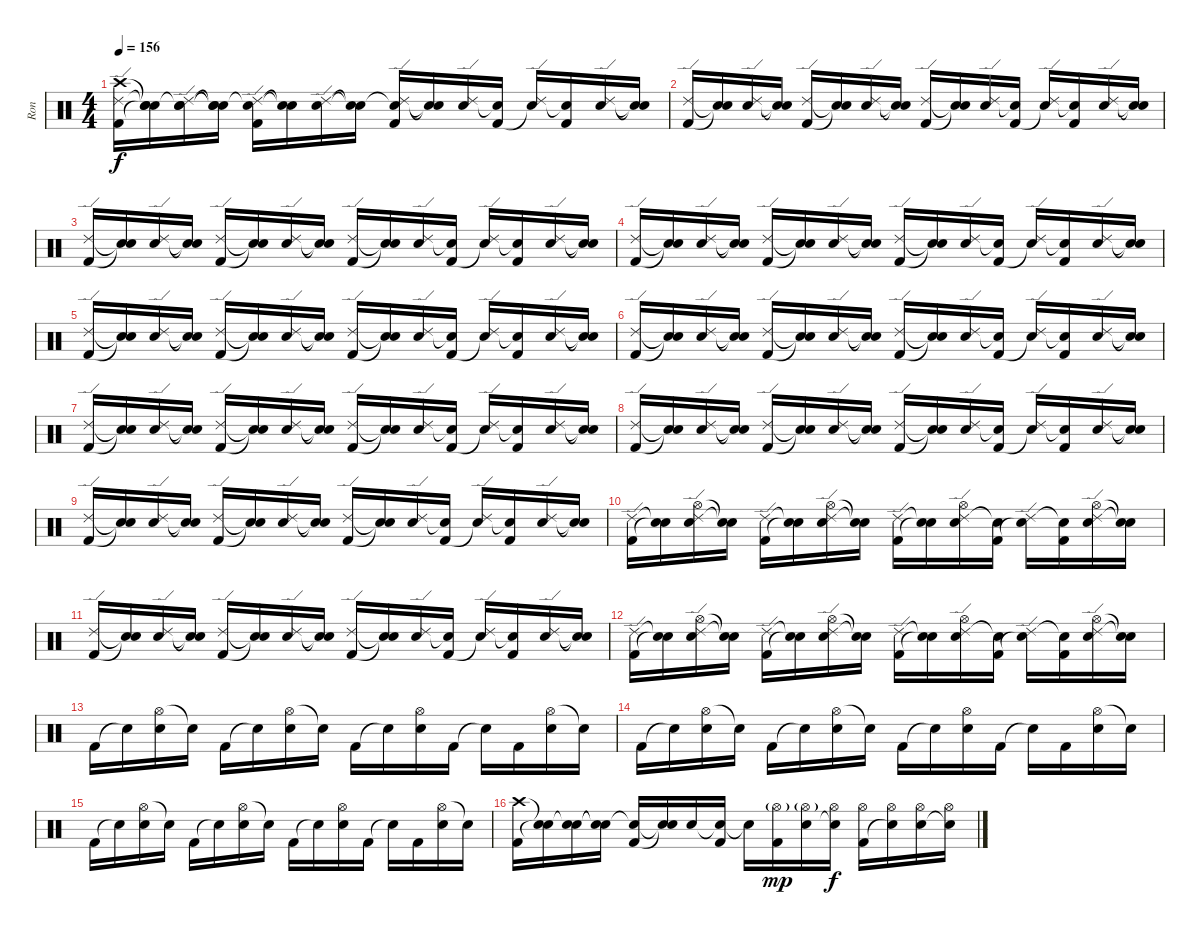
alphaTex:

\track ("Ron" "Ron") {instrument percussion}
\staff {score}
\articulation defaults
\ts (4 4)
\tempo 156
\clef neutral
\ks c
("Crash high (hit)" "Ride (edge) 2" "Kick (hit) 2").16{dy f} ("Snare (hit)"{t} "Snare (hit)"{t} "Snare (hit)"{t}).16 ("Snare (hit)"{t} "Ride (edge) 2" "Electric Snare (hit)").16 ("Snare (hit)"{t} "Snare (hit)"{t} "Snare (hit)"{t}).16 ("Snare (hit)"{t} "Ride (edge) 2" "Kick (hit) 2").16 ("Snare (hit)"{t} "Snare (hit)"{t}).16 ("Ride (edge) 2" "Electric Snare (hit)").16 ("Snare (hit)"{t} "Snare (hit)"{t}).16 ("Snare (hit)"{t} "Ride (edge) 2" "Kick (hit) 2").16 ("Snare (hit)"{t} "Snare (hit)"{t}).16 ("Ride (edge) 2" "Electric Snare (hit)").16 ("Snare (hit)"{t} "Kick (hit) 2").16 ("Ride (edge) 2" "Snare (hit)"{t}).16 ("Snare (hit)"{t} "Kick (hit) 2").16 ("Ride (edge) 2" "Electric Snare (hit)").16 ("Snare (hit)"{t} "Snare (hit)"{t}).16 |
("Ride (edge) 2" "Kick (hit) 2").16 ("Snare (hit)"{t} "Snare (hit)"{t}).16 ("Ride (edge) 2" "Electric Snare (hit)").16 ("Snare (hit)"{t} "Snare (hit)"{t}).16 ("Ride (edge) 2" "Kick (hit) 2").16 ("Snare (hit)"{t} "Snare (hit)"{t}).16 ("Ride (edge) 2" "Electric Snare (hit)").16 ("Snare (hit)"{t} "Snare (hit)"{t}).16 ("Ride (edge) 2" "Kick (hit) 2").16 ("Snare (hit)"{t} "Snare (hit)"{t}).16 ("Ride (edge) 2" "Electric Snare (hit)").16 ("Snare (hit)"{t} "Kick (hit) 2").16 ("Ride (edge) 2" "Snare (hit)"{t}).16 ("Snare (hit)"{t} "Kick (hit) 2").16 ("Ride (edge) 2" "Electric Snare (hit)").16 ("Snare (hit)"{t} "Snare (hit)"{t}).16 |
("Ride (edge) 2" "Kick (hit) 2").16 ("Snare (hit)"{t} "Snare (hit)"{t}).16 ("Ride (edge) 2" "Electric Snare (hit)").16 ("Snare (hit)"{t} "Snare (hit)"{t}).16 ("Ride (edge) 2" "Kick (hit) 2").16 ("Snare (hit)"{t} "Snare (hit)"{t}).16 ("Ride (edge) 2" "Electric Snare (hit)").16 ("Snare (hit)"{t} "Snare (hit)"{t}).16 ("Ride (edge) 2" "Kick (hit) 2").16 ("Snare (hit)"{t} "Snare (hit)"{t}).16 ("Ride (edge) 2" "Electric Snare (hit)").16 ("Snare (hit)"{t} "Kick (hit) 2").16 ("Ride (edge) 2" "Snare (hit)"{t}).16 ("Snare (hit)"{t} "Kick (hit) 2").16 ("Ride (edge) 2" "Electric Snare (hit)").16 ("Snare (hit)"{t} "Snare (hit)"{t}).16 |
("Ride (edge) 2" "Kick (hit) 2").16 ("Snare (hit)"{t} "Snare (hit)"{t}).16 ("Ride (edge) 2" "Electric Snare (hit)").16 ("Snare (hit)"{t} "Snare (hit)"{t}).16 ("Ride (edge) 2" "Kick (hit) 2").16 ("Snare (hit)"{t} "Snare (hit)"{t}).16 ("Ride (edge) 2" "Electric Snare (hit)").16 ("Snare (hit)"{t} "Snare (hit)"{t}).16 ("Ride (edge) 2" "Kick (hit) 2").16 ("Snare (hit)"{t} "Snare (hit)"{t}).16 ("Ride (edge) 2" "Electric Snare (hit)").16 ("Snare (hit)"{t} "Kick (hit) 2").16 ("Ride (edge) 2" "Snare (hit)"{t}).16 ("Snare (hit)"{t} "Kick (hit) 2").16 ("Ride (edge) 2" "Electric Snare (hit)").16 ("Snare (hit)"{t} "Snare (hit)"{t}).16 |
("Ride (edge) 2" "Kick (hit) 2").16 ("Snare (hit)"{t} "Snare (hit)"{t}).16 ("Ride (edge) 2" "Electric Snare (hit)").16 ("Snare (hit)"{t} "Snare (hit)"{t}).16 ("Ride (edge) 2" "Kick (hit) 2").16 ("Snare (hit)"{t} "Snare (hit)"{t}).16 ("Ride (edge) 2" "Electric Snare (hit)").16 ("Snare (hit)"{t} "Snare (hit)"{t}).16 ("Ride (edge) 2" "Kick (hit) 2").16 ("Snare (hit)"{t} "Snare (hit)"{t}).16 ("Ride (edge) 2" "Electric Snare (hit)").16 ("Snare (hit)"{t} "Kick (hit) 2").16 ("Ride (edge) 2" "Snare (hit)"{t}).16 ("Snare (hit)"{t} "Kick (hit) 2").16 ("Ride (edge) 2" "Electric Snare (hit)").16 ("Snare (hit)"{t} "Snare (hit)"{t}).16 |
("Ride (edge) 2" "Kick (hit) 2").16 ("Snare (hit)"{t} "Snare (hit)"{t}).16 ("Ride (edge) 2" "Electric Snare (hit)").16 ("Snare (hit)"{t} "Snare (hit)"{t}).16 ("Ride (edge) 2" "Kick (hit) 2").16 ("Snare (hit)"{t} "Snare (hit)"{t}).16 ("Ride (edge) 2" "Electric Snare (hit)").16 ("Snare (hit)"{t} "Snare (hit)"{t}).16 ("Ride (edge) 2" "Kick (hit) 2").16 ("Snare (hit)"{t} "Snare (hit)"{t}).16 ("Ride (edge) 2" "Electric Snare (hit)").16 ("Snare (hit)"{t} "Kick (hit) 2").16 ("Ride (edge) 2" "Snare (hit)"{t}).16 ("Snare (hit)"{t} "Kick (hit) 2").16 ("Ride (edge) 2" "Electric Snare (hit)").16 ("Snare (hit)"{t} "Snare (hit)"{t}).16 |
("Ride (edge) 2" "Kick (hit) 2").16 ("Snare (hit)"{t} "Snare (hit)"{t}).16 ("Ride (edge) 2" "Electric Snare (hit)").16 ("Snare (hit)"{t} "Snare (hit)"{t}).16 ("Ride (edge) 2" "Kick (hit) 2").16 ("Snare (hit)"{t} "Snare (hit)"{t}).16 ("Ride (edge) 2" "Electric Snare (hit)").16 ("Snare (hit)"{t} "Snare (hit)"{t}).16 ("Ride (edge) 2" "Kick (hit) 2").16 ("Snare (hit)"{t} "Snare (hit)"{t}).16 ("Ride (edge) 2" "Electric Snare (hit)").16 ("Snare (hit)"{t} "Kick (hit) 2").16 ("Ride (edge) 2" "Snare (hit)"{t}).16 ("Snare (hit)"{t} "Kick (hit) 2").16 ("Ride (edge) 2" "Electric Snare (hit)").16 ("Snare (hit)"{t} "Snare (hit)"{t}).16 |
("Ride (edge) 2" "Kick (hit) 2").16 ("Snare (hit)"{t} "Snare (hit)"{t}).16 ("Ride (edge) 2" "Electric Snare (hit)").16 ("Snare (hit)"{t} "Snare (hit)"{t}).16 ("Ride (edge) 2" "Kick (hit) 2").16 ("Snare (hit)"{t} "Snare (hit)"{t}).16 ("Ride (edge) 2" "Electric Snare (hit)").16 ("Snare (hit)"{t} "Snare (hit)"{t}).16 ("Ride (edge) 2" "Kick (hit) 2").16 ("Snare (hit)"{t} "Snare (hit)"{t}).16 ("Ride (edge) 2" "Electric Snare (hit)").16 ("Snare (hit)"{t} "Kick (hit) 2").16 ("Ride (edge) 2" "Snare (hit)"{t}).16 ("Snare (hit)"{t} "Kick (hit) 2").16 ("Ride (edge) 2" "Electric Snare (hit)").16 ("Snare (hit)"{t} "Snare (hit)"{t}).16 |
("Ride (edge) 2" "Kick (hit) 2").16 ("Snare (hit)"{t} "Snare (hit)"{t}).16 ("Ride (edge) 2" "Electric Snare (hit)").16 ("Snare (hit)"{t} "Snare (hit)"{t}).16 ("Ride (edge) 2" "Kick (hit) 2").16 ("Snare (hit)"{t} "Snare (hit)"{t}).16 ("Ride (edge) 2" "Electric Snare (hit)").16 ("Snare (hit)"{t} "Snare (hit)"{t}).16 ("Ride (edge) 2" "Kick (hit) 2").16 ("Snare (hit)"{t} "Snare (hit)"{t}).16 ("Ride (edge) 2" "Electric Snare (hit)").16 ("Snare (hit)"{t} "Kick (hit) 2").16 ("Ride (edge) 2" "Snare (hit)"{t}).16 ("Snare (hit)"{t} "Kick (hit) 2").16 ("Ride (edge) 2" "Electric Snare (hit)").16 ("Snare (hit)"{t} "Snare (hit)"{t}).16 |
("Ride (edge) 2" "Kick (hit) 2").16 ("Snare (hit)"{t} "Snare (hit)"{t}).16 ("Ride (edge) 2" "Hi-Hat (open)" "Electric Snare (hit)").16 ("Snare (hit)"{t} "Snare (hit)"{t}).16 ("Ride (edge) 2" "Kick (hit) 2").16 ("Snare (hit)"{t} "Snare (hit)"{t}).16 ("Ride (edge) 2" "Hi-Hat (open)" "Electric Snare (hit)").16 ("Snare (hit)"{t} "Snare (hit)"{t}).16 ("Ride (edge) 2" "Kick (hit) 2").16 ("Snare (hit)"{t} "Snare (hit)"{t}).16 ("Ride (edge) 2" "Hi-Hat (open)" "Electric Snare (hit)").16 ("Snare (hit)"{t} "Kick (hit) 2").16 ("Ride (edge) 2" "Snare (hit)"{t}).16 ("Snare (hit)"{t} "Kick (hit) 2").16 ("Ride (edge) 2" "Hi-Hat (open)" "Electric Snare (hit)").16 ("Snare (hit)"{t} "Snare (hit)"{t}).16 |
("Ride (edge) 2" "Kick (hit) 2").16 ("Snare (hit)"{t} "Snare (hit)"{t}).16 ("Ride (edge) 2" "Electric Snare (hit)").16 ("Snare (hit)"{t} "Snare (hit)"{t}).16 ("Ride (edge) 2" "Kick (hit) 2").16 ("Snare (hit)"{t} "Snare (hit)"{t}).16 ("Ride (edge) 2" "Electric Snare (hit)").16 ("Snare (hit)"{t} "Snare (hit)"{t}).16 ("Ride (edge) 2" "Kick (hit) 2").16 ("Snare (hit)"{t} "Snare (hit)"{t}).16 ("Ride (edge) 2" "Electric Snare (hit)").16 ("Snare (hit)"{t} "Kick (hit) 2").16 ("Ride (edge) 2" "Snare (hit)"{t}).16 ("Snare (hit)"{t} "Kick (hit) 2").16 ("Ride (edge) 2" "Electric Snare (hit)").16 ("Snare (hit)"{t} "Snare (hit)"{t}).16 |
("Ride (edge) 2" "Kick (hit) 2").16 ("Snare (hit)"{t} "Snare (hit)"{t}).16 ("Ride (edge) 2" "Hi-Hat (open)" "Electric Snare (hit)").16 ("Snare (hit)"{t} "Snare (hit)"{t}).16 ("Ride (edge) 2" "Kick (hit) 2").16 ("Snare (hit)"{t} "Snare (hit)"{t}).16 ("Ride (edge) 2" "Hi-Hat (open)" "Electric Snare (hit)").16 ("Snare (hit)"{t} "Snare (hit)"{t}).16 ("Ride (edge) 2" "Kick (hit) 2").16 ("Snare (hit)"{t} "Snare (hit)"{t}).16 ("Ride (edge) 2" "Hi-Hat (open)" "Electric Snare (hit)").16 ("Snare (hit)"{t} "Kick (hit) 2").16 ("Ride (edge) 2" "Snare (hit)"{t}).16 ("Snare (hit)"{t} "Kick (hit) 2").16 ("Ride (edge) 2" "Hi-Hat (open)" "Electric Snare (hit)").16 ("Snare (hit)"{t} "Snare (hit)"{t}).16 |
"Kick (hit) 2".16 "Snare (hit)"{t}.16 ("Hi-Hat (open)" "Electric Snare (hit)").16 "Snare (hit)"{t}.16 "Kick (hit) 2".16 "Snare (hit)"{t}.16 ("Hi-Hat (open)" "Electric Snare (hit)").16 "Snare (hit)"{t}.16 "Kick (hit) 2".16 "Snare (hit)"{t}.16 ("Hi-Hat (open)" "Electric Snare (hit)").16 "Kick (hit) 2".16 "Snare (hit)"{t}.16 "Kick (hit) 2".16 ("Hi-Hat (open)" "Electric Snare (hit)").16 "Snare (hit)"{t}.16 |
"Kick (hit) 2".16 "Snare (hit)"{t}.16 ("Hi-Hat (open)" "Electric Snare (hit)").16 "Snare (hit)"{t}.16 "Kick (hit) 2".16 "Snare (hit)"{t}.16 ("Hi-Hat (open)" "Electric Snare (hit)").16 "Snare (hit)"{t}.16 "Kick (hit) 2".16 "Snare (hit)"{t}.16 ("Hi-Hat (open)" "Electric Snare (hit)").16 "Kick (hit) 2".16 "Snare (hit)"{t}.16 "Kick (hit) 2".16 ("Hi-Hat (open)" "Electric Snare (hit)").16 "Snare (hit)"{t}.16 |
"Kick (hit) 2".16 "Snare (hit)"{t}.16 ("Hi-Hat (open)" "Electric Snare (hit)").16 "Snare (hit)"{t}.16 "Kick (hit) 2".16 "Snare (hit)"{t}.16 ("Hi-Hat (open)" "Electric Snare (hit)").16 "Snare (hit)"{t}.16 "Kick (hit) 2".16 "Snare (hit)"{t}.16 ("Hi-Hat (open)" "Electric Snare (hit)").16 "Kick (hit) 2".16 "Snare (hit)"{t}.16 "Kick (hit) 2".16 ("Hi-Hat (open)" "Electric Snare (hit)").16 "Snare (hit)"{t}.16 |
("Crash high (hit)" "Kick (hit) 2").16 ("Snare (hit)"{t} "Snare (hit)"{t}).16 ("Snare (hit)"{t} "Electric Snare (hit)").16 ("Snare (hit)"{t} "Snare (hit)"{t}).16 ("Snare (hit)"{t} "Kick (hit) 2").16 ("Snare (hit)"{t} "Snare (hit)"{t}).16 "Electric Snare (hit)".16 ("Snare (hit)"{t} "Kick (hit) 2").16 "Snare (hit)"{t}.16 ("Hi-Hat (open)"{g} "Kick (hit) 2").16{dy mp} ("Hi-Hat (open)"{g} "Electric Snare (hit)").16 ("Hi-Hat (open)" "Snare (hit)"{t}).16{dy f} ("Hi-Hat (open)" "Kick (hit) 2").16 ("Hi-Hat (open)" "Snare (hit)"{t}).16 ("Hi-Hat (open)" "Electric Snare (hit)").16 ("Hi-Hat (open)" "Snare (hit)"{t}).16
